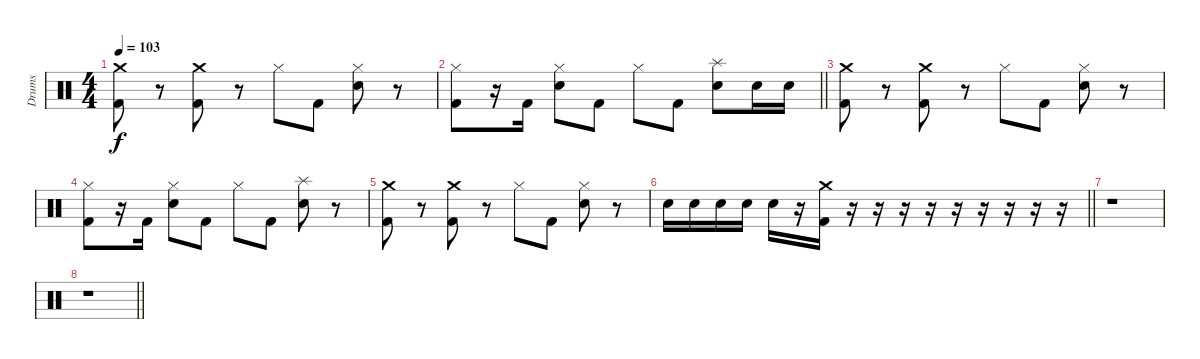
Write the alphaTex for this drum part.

\track ("Drums" "Drums") {instrument percussion}
\staff {score}
\articulation defaults
\ts (4 4)
\tempo 103
\clef neutral
\ks c
("Crash medium (hit)" "Kick (hit) 2").8{dy f} r.8 ("Crash medium (hit)" "Kick (hit) 2").8 r.8 "Hi-Hat (closed)".8 "Kick (hit) 2".8 ("Hi-Hat (closed)" "Snare (hit) 2").8 r.8 |
\barLineRight lightlight
("Hi-Hat (closed)" "Kick (hit) 2").8 r.16 "Kick (hit) 2".16 ("Hi-Hat (closed)" "Snare (hit) 2").8 "Kick (hit) 2".8 "Hi-Hat (closed)".8 "Kick (hit) 2".8 ("Splash (hit)" "Snare (hit) 2").8 "Snare (hit) 2".16 "Snare (hit) 2".16 |
("Crash medium (hit)" "Kick (hit) 2").8 r.8 ("Crash medium (hit)" "Kick (hit) 2").8 r.8 "Hi-Hat (closed)".8 "Kick (hit) 2".8 ("Hi-Hat (closed)" "Snare (hit) 2").8 r.8 |
("Hi-Hat (closed)" "Kick (hit) 2").8 r.16 "Kick (hit) 2".16 ("Hi-Hat (closed)" "Snare (hit) 2").8 "Kick (hit) 2".8 "Hi-Hat (closed)".8 "Kick (hit) 2".8 ("Splash (hit)" "Snare (hit) 2").8 r.8 |
("Crash medium (hit)" "Kick (hit) 2").8 r.8 ("Crash medium (hit)" "Kick (hit) 2").8 r.8 "Hi-Hat (closed)".8 "Kick (hit) 2".8 ("Hi-Hat (closed)" "Snare (hit) 2").8 r.8 |
\barLineRight lightlight "Snare (hit) 2".16 "Snare (hit) 2".16 "Snare (hit) 2".16 "Snare (hit) 2".16 "Snare (hit) 2".16
r.16 ("Crash medium (hit)" "Kick (hit) 2").16 r.16 r.16 r.16 r.16 r.16 r.16 r.16 r.16 r.16 |
r.1 |
\barLineRight lightlight
r.1
